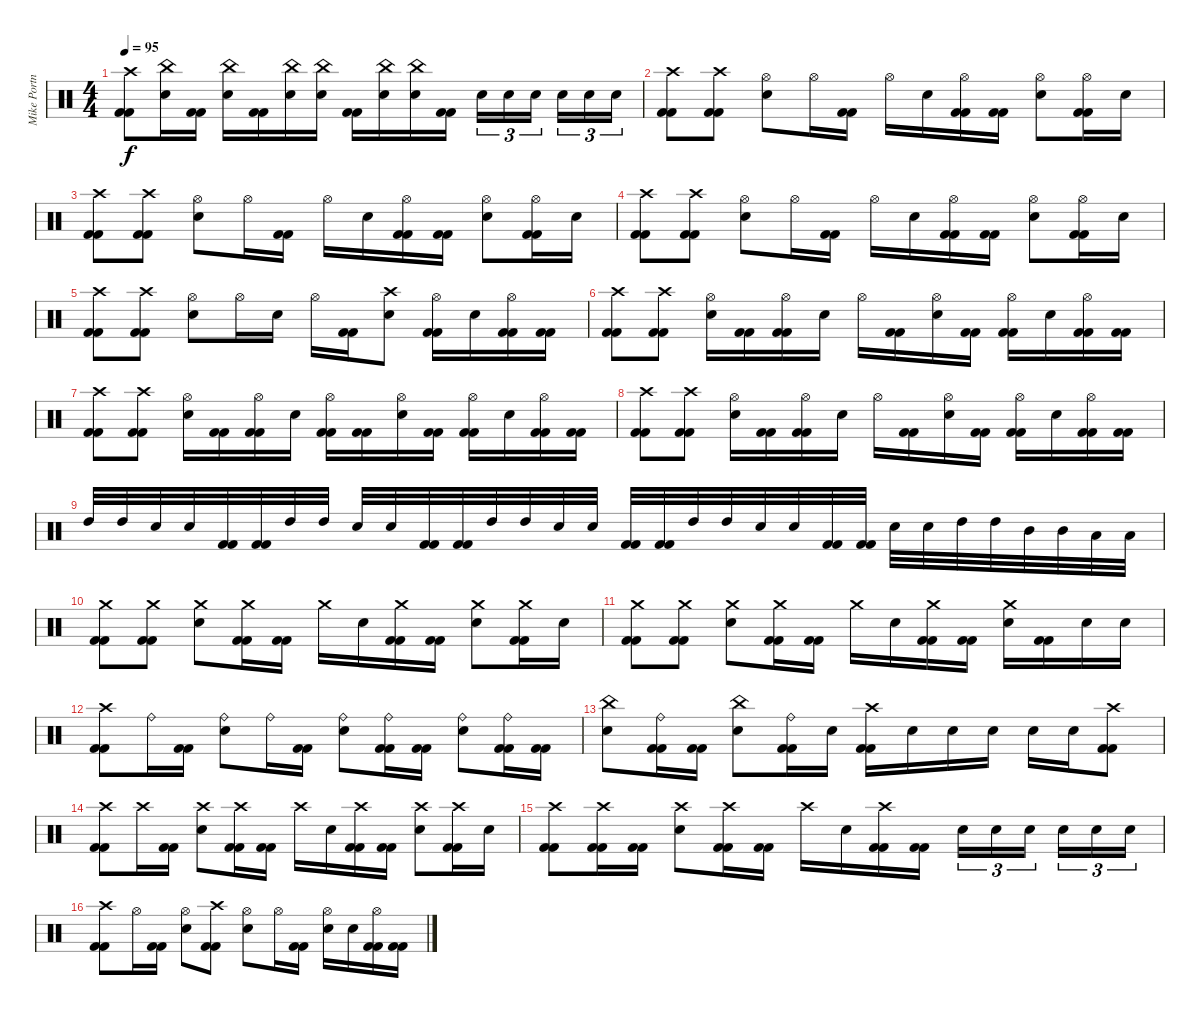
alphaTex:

\track ("Mike Portnoy" "Mike Portn") {instrument percussion}
\staff {score}
\articulation defaults
\ts (4 4)
\tempo 95
\clef neutral
\ks c
("Crash high (hit)" "Kick (hit) 2" "Kick (hit) 2").8{dy f} ("China (hit)" "Snare (hit) 2").16 ("Kick (hit) 2" "Kick (hit) 2").16 ("China (hit)" "Snare (hit) 2").16 ("Kick (hit) 2" "Kick (hit) 2").16 ("China (hit)" "Snare (hit) 2").16 ("China (hit)" "Snare (hit) 2").16 ("Kick (hit) 2" "Kick (hit) 2").16 ("China (hit)" "Snare (hit) 2").16 ("China (hit)" "Snare (hit) 2").16 ("Kick (hit) 2" "Kick (hit) 2").16 "Snare (hit) 2".16{tu (3 2)} "Snare (hit) 2".16{tu (3 2)} "Snare (hit) 2".16{tu (3 2)} "Snare (hit) 2".16{tu (3 2)} "Snare (hit) 2".16{tu (3 2)} "Snare (hit) 2".16{tu (3 2)} |
("Crash high (hit)" "Kick (hit) 2" "Kick (hit) 2").8 ("Crash high (hit)" "Kick (hit) 2" "Kick (hit) 2").8 ("Hi-Hat (open)" "Snare (hit) 2").8 "Hi-Hat (open)".16 ("Kick (hit) 2" "Kick (hit) 2").16 "Hi-Hat (open)".16 "Snare (hit) 2".16 ("Hi-Hat (open)" "Kick (hit) 2" "Kick (hit) 2").16 ("Kick (hit) 2" "Kick (hit) 2").16 ("Hi-Hat (open)" "Snare (hit) 2").8 ("Hi-Hat (open)" "Kick (hit) 2" "Kick (hit) 2").16 "Snare (hit) 2".16 |
("Crash high (hit)" "Kick (hit) 2" "Kick (hit) 2").8 ("Crash high (hit)" "Kick (hit) 2" "Kick (hit) 2").8 ("Hi-Hat (open)" "Snare (hit) 2").8 "Hi-Hat (open)".16 ("Kick (hit) 2" "Kick (hit) 2").16 "Hi-Hat (open)".16 "Snare (hit) 2".16 ("Hi-Hat (open)" "Kick (hit) 2" "Kick (hit) 2").16 ("Kick (hit) 2" "Kick (hit) 2").16 ("Hi-Hat (open)" "Snare (hit) 2").8 ("Hi-Hat (open)" "Kick (hit) 2" "Kick (hit) 2").16 "Snare (hit) 2".16 |
("Crash high (hit)" "Kick (hit) 2" "Kick (hit) 2").8 ("Crash high (hit)" "Kick (hit) 2" "Kick (hit) 2").8 ("Hi-Hat (open)" "Snare (hit) 2").8 "Hi-Hat (open)".16 ("Kick (hit) 2" "Kick (hit) 2").16 "Hi-Hat (open)".16 "Snare (hit) 2".16 ("Hi-Hat (open)" "Kick (hit) 2" "Kick (hit) 2").16 ("Kick (hit) 2" "Kick (hit) 2").16 ("Hi-Hat (open)" "Snare (hit) 2").8 ("Hi-Hat (open)" "Kick (hit) 2" "Kick (hit) 2").16 "Snare (hit) 2".16 |
("Crash high (hit)" "Kick (hit) 2" "Kick (hit) 2").8 ("Crash high (hit)" "Kick (hit) 2" "Kick (hit) 2").8 ("Hi-Hat (open)" "Snare (hit) 2").8 "Hi-Hat (open)".16 "Snare (hit) 2".16 "Hi-Hat (open)".16 ("Kick (hit) 2" "Kick (hit) 2").16 ("Crash high (hit)" "Snare (hit) 2").8 ("Hi-Hat (open)" "Kick (hit) 2" "Kick (hit) 2").16 "Snare (hit) 2".16 ("Hi-Hat (open)" "Kick (hit) 2" "Kick (hit) 2").16 ("Kick (hit) 2" "Kick (hit) 2").16 |
("Crash high (hit)" "Kick (hit) 2" "Kick (hit) 2").8 ("Crash high (hit)" "Kick (hit) 2" "Kick (hit) 2").8 ("Hi-Hat (open)" "Snare (hit) 2").16 ("Kick (hit) 2" "Kick (hit) 2").16 ("Hi-Hat (open)" "Kick (hit) 2" "Kick (hit) 2").16 "Snare (hit) 2".16 "Hi-Hat (open)".16 ("Kick (hit) 2" "Kick (hit) 2").16 ("Hi-Hat (open)" "Snare (hit) 2").16 ("Kick (hit) 2" "Kick (hit) 2").16 ("Hi-Hat (open)" "Kick (hit) 2" "Kick (hit) 2").16 "Snare (hit) 2".16 ("Hi-Hat (open)" "Kick (hit) 2" "Kick (hit) 2").16 ("Kick (hit) 2" "Kick (hit) 2").16 |
("Crash high (hit)" "Kick (hit) 2" "Kick (hit) 2").8 ("Crash high (hit)" "Kick (hit) 2" "Kick (hit) 2").8 ("Hi-Hat (open)" "Snare (hit) 2").16 ("Kick (hit) 2" "Kick (hit) 2").16 ("Hi-Hat (open)" "Kick (hit) 2" "Kick (hit) 2").16 "Snare (hit) 2".16 ("Hi-Hat (open)" "Kick (hit) 2" "Kick (hit) 2").16 ("Kick (hit) 2" "Kick (hit) 2").16 ("Hi-Hat (open)" "Snare (hit) 2").16 ("Kick (hit) 2" "Kick (hit) 2").16 ("Hi-Hat (open)" "Kick (hit) 2" "Kick (hit) 2").16 "Snare (hit) 2".16 ("Hi-Hat (open)" "Kick (hit) 2" "Kick (hit) 2").16 ("Kick (hit) 2" "Kick (hit) 2").16 |
("Crash high (hit)" "Kick (hit) 2" "Kick (hit) 2").8 ("Crash high (hit)" "Kick (hit) 2" "Kick (hit) 2").8 ("Hi-Hat (open)" "Snare (hit) 2").16 ("Kick (hit) 2" "Kick (hit) 2").16 ("Hi-Hat (open)" "Kick (hit) 2" "Kick (hit) 2").16 "Snare (hit) 2".16 "Hi-Hat (open)".16 ("Kick (hit) 2" "Kick (hit) 2").16 ("Hi-Hat (open)" "Snare (hit) 2").16 ("Kick (hit) 2" "Kick (hit) 2").16 ("Hi-Hat (open)" "Kick (hit) 2" "Kick (hit) 2").16 "Snare (hit) 2".16 ("Hi-Hat (open)" "Kick (hit) 2" "Kick (hit) 2").16 ("Kick (hit) 2" "Kick (hit) 2").16 |
"High Tom (hit)".32 "High Tom (hit)".32 "Snare (hit) 2".32 "Snare (hit) 2".32 ("Kick (hit) 2" "Kick (hit) 2").32 ("Kick (hit) 2" "Kick (hit) 2").32 "High Tom (hit)".32 "High Tom (hit)".32 "Snare (hit) 2".32 "Snare (hit) 2".32 ("Kick (hit) 2" "Kick (hit) 2").32 ("Kick (hit) 2" "Kick (hit) 2").32 "High Tom (hit)".32 "High Tom (hit)".32 "Snare (hit) 2".32 "Snare (hit) 2".32 ("Kick (hit) 2" "Kick (hit) 2").32 ("Kick (hit) 2" "Kick (hit) 2").32 "High Tom (hit)".32 "High Tom (hit)".32 "Snare (hit) 2".32 "Snare (hit) 2".32 ("Kick (hit) 2" "Kick (hit) 2").32 ("Kick (hit) 2" "Kick (hit) 2").32 "Snare (hit) 2".32 "Snare (hit) 2".32 "High Tom (hit)".32 "High Tom (hit)".32 "Mid Tom (hit)".32 "Mid Tom (hit)".32 "Low Tom (hit)".32 "Low Tom (hit)".32 |
("Crash medium (hit)" "Kick (hit) 2" "Kick (hit) 2").8 ("Crash medium (hit)" "Kick (hit) 2" "Kick (hit) 2").8 ("Crash medium (hit)" "Snare (hit) 2").8 ("Crash medium (hit)" "Kick (hit) 2" "Kick (hit) 2").16 ("Kick (hit) 2" "Kick (hit) 2").16 "Crash medium (hit)".16 "Snare (hit) 2".16 ("Crash medium (hit)" "Kick (hit) 2" "Kick (hit) 2").16 ("Kick (hit) 2" "Kick (hit) 2").16 ("Crash medium (hit)" "Snare (hit) 2").8 ("Crash medium (hit)" "Kick (hit) 2" "Kick (hit) 2").16 "Snare (hit) 2".16 |
("Crash medium (hit)" "Kick (hit) 2" "Kick (hit) 2").8 ("Crash medium (hit)" "Kick (hit) 2" "Kick (hit) 2").8 ("Crash medium (hit)" "Snare (hit) 2").8 ("Crash medium (hit)" "Kick (hit) 2" "Kick (hit) 2").16 ("Kick (hit) 2" "Kick (hit) 2").16 "Crash medium (hit)".16 "Snare (hit) 2".16 ("Crash medium (hit)" "Kick (hit) 2" "Kick (hit) 2").16 ("Kick (hit) 2" "Kick (hit) 2").16 ("Crash medium (hit)" "Snare (hit) 2").16 ("Kick (hit) 2" "Kick (hit) 2").16 "Snare (hit) 2".16 "Snare (hit) 2".16 |
("Crash high (hit)" "Kick (hit) 2" "Kick (hit) 2").8 "Ride (bell)".16 ("Kick (hit) 2" "Kick (hit) 2").16 ("Ride (bell)" "Snare (hit) 2").8 "Ride (bell)".16 ("Kick (hit) 2" "Kick (hit) 2").16 ("Ride (bell)" "Snare (hit) 2").8 ("Ride (bell)" "Kick (hit) 2" "Kick (hit) 2").16 ("Kick (hit) 2" "Kick (hit) 2").16 ("Ride (bell)" "Snare (hit) 2").8 ("Ride (bell)" "Kick (hit) 2" "Kick (hit) 2").16 ("Kick (hit) 2" "Kick (hit) 2").16 |
("China (hit)" "Snare (hit) 2").8 ("Ride (bell)" "Kick (hit) 2" "Kick (hit) 2").16 ("Kick (hit) 2" "Kick (hit) 2").16 ("China (hit)" "Snare (hit) 2").8 ("Ride (bell)" "Kick (hit) 2" "Kick (hit) 2").16 "Snare (hit) 2".16 ("Crash high (hit)" "Kick (hit) 2" "Kick (hit) 2").16 "Snare (hit) 2".16 "Snare (hit) 2".16 "Snare (hit) 2".16 "Snare (hit) 2".16 "Snare (hit) 2".16 ("Crash high (hit)" "Kick (hit) 2" "Kick (hit) 2").8 |
("Crash high (hit)" "Kick (hit) 2" "Kick (hit) 2").8 "Crash high (hit)".16 ("Kick (hit) 2" "Kick (hit) 2").16 ("Crash high (hit)" "Snare (hit) 2").8 ("Crash high (hit)" "Kick (hit) 2" "Kick (hit) 2").16 ("Kick (hit) 2" "Kick (hit) 2").16 "Crash high (hit)".16 "Snare (hit) 2".16 ("Crash high (hit)" "Kick (hit) 2" "Kick (hit) 2").16 ("Kick (hit) 2" "Kick (hit) 2").16 ("Crash high (hit)" "Snare (hit) 2").8 ("Crash high (hit)" "Kick (hit) 2" "Kick (hit) 2").16 "Snare (hit) 2".16 |
("Crash high (hit)" "Kick (hit) 2" "Kick (hit) 2").8 ("Crash high (hit)" "Kick (hit) 2" "Kick (hit) 2").16 ("Kick (hit) 2" "Kick (hit) 2").16 ("Crash high (hit)" "Snare (hit) 2").8 ("Crash high (hit)" "Kick (hit) 2" "Kick (hit) 2").16 ("Kick (hit) 2" "Kick (hit) 2").16 "Crash high (hit)".16 "Snare (hit) 2".16 ("Crash high (hit)" "Kick (hit) 2" "Kick (hit) 2").16 ("Kick (hit) 2" "Kick (hit) 2").16 "Snare (hit) 2".16{tu (3 2)} "Snare (hit) 2".16{tu (3 2)} "Snare (hit) 2".16{tu (3 2)} "Snare (hit) 2".16{tu (3 2)} "Snare (hit) 2".16{tu (3 2)} "Snare (hit) 2".16{tu (3 2)} |
("Crash high (hit)" "Kick (hit) 2" "Kick (hit) 2").8 "Hi-Hat (open)".16 ("Kick (hit) 2" "Kick (hit) 2").16 ("Hi-Hat (open)" "Snare (hit) 2").8 ("Crash high (hit)" "Kick (hit) 2" "Kick (hit) 2").8 ("Hi-Hat (open)" "Snare (hit) 2").8 "Hi-Hat (open)".16 ("Kick (hit) 2" "Kick (hit) 2").16 ("Hi-Hat (open)" "Snare (hit) 2").16 "Snare (hit) 2".16 ("Hi-Hat (open)" "Kick (hit) 2" "Kick (hit) 2").16 ("Kick (hit) 2" "Kick (hit) 2").16
